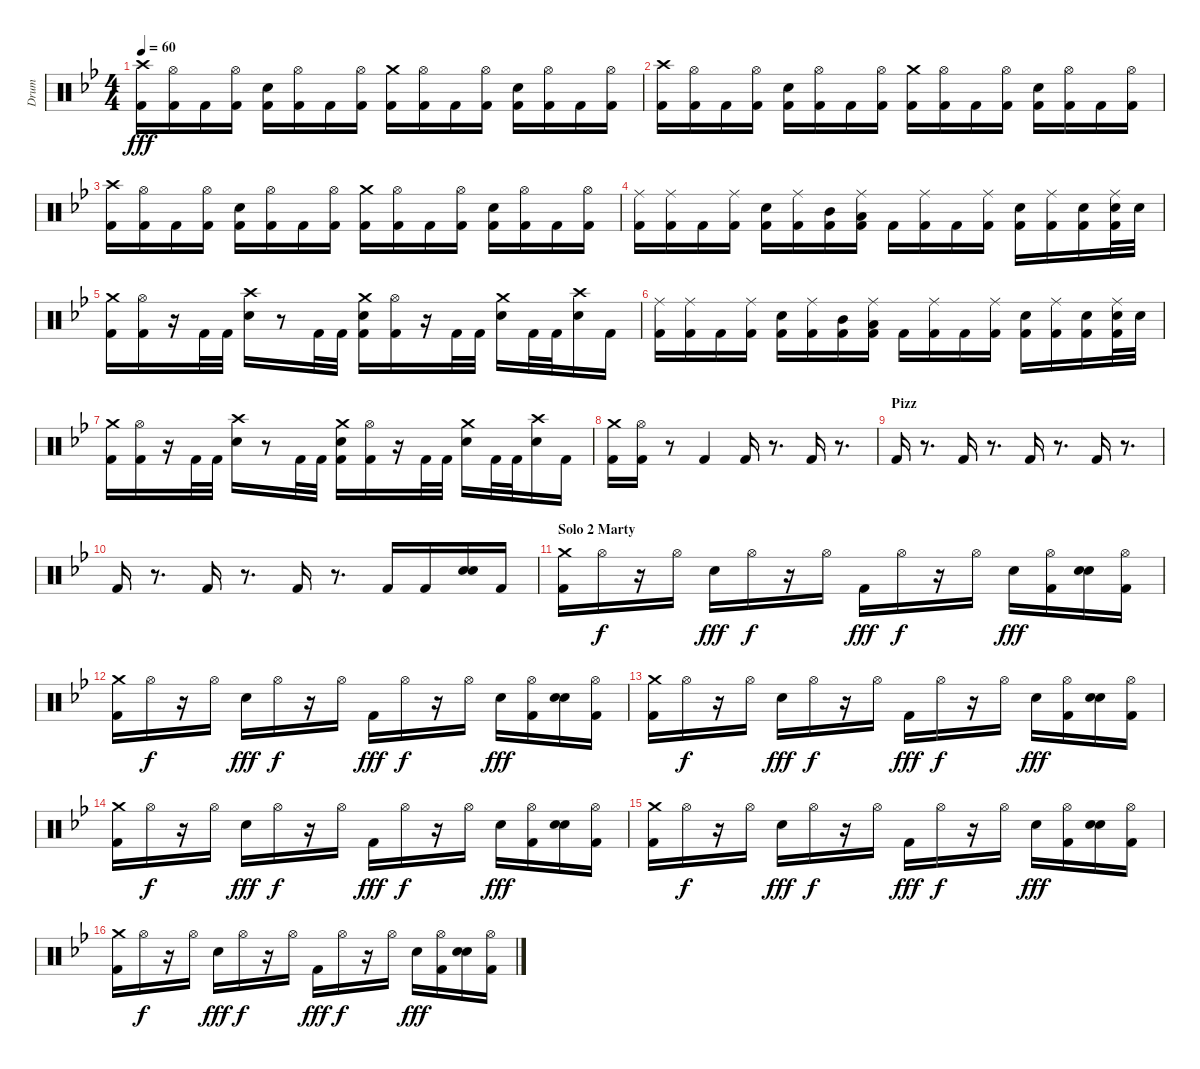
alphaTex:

\track ("Drum" "Drum") {instrument percussion}
\staff {score}
\articulation defaults
\ts (4 4)
\tempo 60
\clef neutral
\ks gminor
("Kick (hit) 2" "Crash high (hit)").16{dy fff} ("Kick (hit) 2" "Hi-Hat (open)").16 "Kick (hit) 2".16 ("Kick (hit) 2" "Hi-Hat (open)").16 ("Kick (hit) 2" "Electric Snare (hit)").16 ("Kick (hit) 2" "Hi-Hat (open)").16 "Kick (hit) 2".16 ("Kick (hit) 2" "Hi-Hat (open)").16 ("Kick (hit) 2" "Crash medium (hit)").16 ("Kick (hit) 2" "Hi-Hat (open)").16 "Kick (hit) 2".16 ("Kick (hit) 2" "Hi-Hat (open)").16 ("Electric Snare (hit)" "Kick (hit) 2").16 ("Kick (hit) 2" "Hi-Hat (open)").16 "Kick (hit) 2".16 ("Kick (hit) 2" "Hi-Hat (open)").16 |
("Kick (hit) 2" "Crash high (hit)").16 ("Kick (hit) 2" "Hi-Hat (open)").16 "Kick (hit) 2".16 ("Kick (hit) 2" "Hi-Hat (open)").16 ("Electric Snare (hit)" "Kick (hit) 2").16 ("Kick (hit) 2" "Hi-Hat (open)").16 "Kick (hit) 2".16 ("Kick (hit) 2" "Hi-Hat (open)").16 ("Kick (hit) 2" "Crash medium (hit)").16 ("Kick (hit) 2" "Hi-Hat (open)").16 "Kick (hit) 2".16 ("Kick (hit) 2" "Hi-Hat (open)").16 ("Kick (hit) 2" "Electric Snare (hit)").16 ("Kick (hit) 2" "Hi-Hat (open)").16 "Kick (hit) 2".16 ("Kick (hit) 2" "Hi-Hat (open)").16 |
("Kick (hit) 2" "Crash high (hit)").16 ("Kick (hit) 2" "Hi-Hat (open)").16 "Kick (hit) 2".16 ("Kick (hit) 2" "Hi-Hat (open)").16 ("Electric Snare (hit)" "Kick (hit) 2").16 ("Kick (hit) 2" "Hi-Hat (open)").16 "Kick (hit) 2".16 ("Kick (hit) 2" "Hi-Hat (open)").16 ("Kick (hit) 2" "Crash medium (hit)").16 ("Kick (hit) 2" "Hi-Hat (open)").16 "Kick (hit) 2".16 ("Kick (hit) 2" "Hi-Hat (open)").16 ("Electric Snare (hit)" "Kick (hit) 2").16 ("Kick (hit) 2" "Hi-Hat (open)").16 "Kick (hit) 2".16 ("Kick (hit) 2" "Hi-Hat (open)").16 |
("Kick (hit) 2" "Ride (middle)").16 ("Kick (hit) 2" "Ride (middle)").16 "Kick (hit) 2".16 ("Kick (hit) 2" "Ride (middle)").16 ("Kick (hit) 2" "Electric Snare (hit)").16 ("Kick (hit) 2" "Ride (middle)").16 ("Kick (hit) 2" "Mid Tom (hit)").16 ("Kick (hit) 2" "Ride (middle)" "Low Tom (hit)").16 "Kick (hit) 2".16 ("Kick (hit) 2" "Ride (middle)").16 "Kick (hit) 2".16 ("Kick (hit) 2" "Ride (middle)").16 ("Electric Snare (hit)" "Kick (hit) 2").16 ("Kick (hit) 2" "Ride (middle)").16 ("Electric Snare (hit)" "Kick (hit) 2").16 ("Kick (hit) 2" "Electric Snare (hit)" "Ride (middle)").32 "Electric Snare (hit)".32 |
("Kick (hit) 2" "Crash medium (hit)").16 ("Kick (hit) 2" "Hi-Hat (open)").16 r.16 "Kick (hit) 2".32 "Kick (hit) 2".32 ("Electric Snare (hit)" "Crash high (hit)").16 r.8 "Kick (hit) 2".32 "Kick (hit) 2".32 ("Kick (hit) 2" "Electric Snare (hit)" "Crash medium (hit)").16 ("Kick (hit) 2" "Hi-Hat (open)").16 r.16 "Kick (hit) 2".32 "Kick (hit) 2".32 ("Electric Snare (hit)" "Crash medium (hit)").16 "Kick (hit) 2".32 "Kick (hit) 2".32 ("Electric Snare (hit)" "Crash high (hit)").16 "Kick (hit) 2".16 |
("Kick (hit) 2" "Ride (middle)").16 ("Kick (hit) 2" "Ride (middle)").16 "Kick (hit) 2".16 ("Kick (hit) 2" "Ride (middle)").16 ("Kick (hit) 2" "Electric Snare (hit)").16 ("Kick (hit) 2" "Ride (middle)").16 ("Kick (hit) 2" "Mid Tom (hit)").16 ("Kick (hit) 2" "Ride (middle)" "Low Tom (hit)").16 "Kick (hit) 2".16 ("Kick (hit) 2" "Ride (middle)").16 "Kick (hit) 2".16 ("Kick (hit) 2" "Ride (middle)").16 ("Electric Snare (hit)" "Kick (hit) 2").16 ("Kick (hit) 2" "Ride (middle)").16 ("Kick (hit) 2" "Electric Snare (hit)").16 ("Kick (hit) 2" "Electric Snare (hit)" "Ride (middle)").32 "Electric Snare (hit)".32 |
("Kick (hit) 2" "Crash medium (hit)").16 ("Kick (hit) 2" "Hi-Hat (open)").16 r.16 "Kick (hit) 2".32 "Kick (hit) 2".32 ("Electric Snare (hit)" "Crash high (hit)").16 r.8 "Kick (hit) 2".32 "Kick (hit) 2".32 ("Kick (hit) 2" "Electric Snare (hit)" "Crash medium (hit)").16 ("Kick (hit) 2" "Hi-Hat (open)").16 r.16 "Kick (hit) 2".32 "Kick (hit) 2".32 ("Electric Snare (hit)" "Crash medium (hit)").16 "Kick (hit) 2".32 "Kick (hit) 2".32 ("Electric Snare (hit)" "Crash high (hit)").16 "Kick (hit) 2".16 |
("Kick (hit) 2" "Crash medium (hit)").16 ("Kick (hit) 2" "Hi-Hat (open)").16 r.8 "Kick (hit) 2".4 "Kick (hit) 2".16 r.8{d} "Kick (hit) 2".16 r.8{d} |
\section ("" "Pizz")
"Kick (hit) 2".16 r.8{d} "Kick (hit) 2".16 r.8{d} "Kick (hit) 2".16 r.8{d} "Kick (hit) 2".16 r.8{d} |
"Kick (hit) 2".16 r.8{d} "Kick (hit) 2".16 r.8{d} "Kick (hit) 2".16 r.8{d} "Kick (hit) 2".16 "Kick (hit) 2".16 ("Electric Snare (hit)" "Electric Snare (hit)").16 "Kick (hit) 2".16 |
\section ("" "Solo 2 Marty")
("Kick (hit) 2" "Crash medium (hit)").16 "Hi-Hat (open)".16{dy f} r.16 "Hi-Hat (open)".16 "Electric Snare (hit)".16{dy fff} "Hi-Hat (open)".16{dy f} r.16 "Hi-Hat (open)".16 "Kick (hit) 2".16{dy fff} "Hi-Hat (open)".16{dy f} r.16 "Hi-Hat (open)".16 "Electric Snare (hit)".16{dy fff} ("Kick (hit) 2" "Hi-Hat (open)").16 ("Snare (hit) 2" "Electric Snare (hit)").16 ("Kick (hit) 2" "Hi-Hat (open)").16 |
("Kick (hit) 2" "Crash medium (hit)").16 "Hi-Hat (open)".16{dy f} r.16 "Hi-Hat (open)".16 "Electric Snare (hit)".16{dy fff} "Hi-Hat (open)".16{dy f} r.16 "Hi-Hat (open)".16 "Kick (hit) 2".16{dy fff} "Hi-Hat (open)".16{dy f} r.16 "Hi-Hat (open)".16 "Electric Snare (hit)".16{dy fff} ("Kick (hit) 2" "Hi-Hat (open)").16 ("Snare (hit) 2" "Electric Snare (hit)").16 ("Kick (hit) 2" "Hi-Hat (open)").16 |
("Kick (hit) 2" "Crash medium (hit)").16 "Hi-Hat (open)".16{dy f} r.16 "Hi-Hat (open)".16 "Electric Snare (hit)".16{dy fff} "Hi-Hat (open)".16{dy f} r.16 "Hi-Hat (open)".16 "Kick (hit) 2".16{dy fff} "Hi-Hat (open)".16{dy f} r.16 "Hi-Hat (open)".16 "Electric Snare (hit)".16{dy fff} ("Kick (hit) 2" "Hi-Hat (open)").16 ("Snare (hit) 2" "Electric Snare (hit)").16 ("Kick (hit) 2" "Hi-Hat (open)").16 |
("Kick (hit) 2" "Crash medium (hit)").16 "Hi-Hat (open)".16{dy f} r.16 "Hi-Hat (open)".16 "Electric Snare (hit)".16{dy fff} "Hi-Hat (open)".16{dy f} r.16 "Hi-Hat (open)".16 "Kick (hit) 2".16{dy fff} "Hi-Hat (open)".16{dy f} r.16 "Hi-Hat (open)".16 "Electric Snare (hit)".16{dy fff} ("Kick (hit) 2" "Hi-Hat (open)").16 ("Snare (hit) 2" "Electric Snare (hit)").16 ("Kick (hit) 2" "Hi-Hat (open)").16 |
("Kick (hit) 2" "Crash medium (hit)").16 "Hi-Hat (open)".16{dy f} r.16 "Hi-Hat (open)".16 "Electric Snare (hit)".16{dy fff} "Hi-Hat (open)".16{dy f} r.16 "Hi-Hat (open)".16 "Kick (hit) 2".16{dy fff} "Hi-Hat (open)".16{dy f} r.16 "Hi-Hat (open)".16 "Electric Snare (hit)".16{dy fff} ("Kick (hit) 2" "Hi-Hat (open)").16 ("Snare (hit) 2" "Electric Snare (hit)").16 ("Kick (hit) 2" "Hi-Hat (open)").16 |
("Kick (hit) 2" "Crash medium (hit)").16 "Hi-Hat (open)".16{dy f} r.16 "Hi-Hat (open)".16 "Electric Snare (hit)".16{dy fff} "Hi-Hat (open)".16{dy f} r.16 "Hi-Hat (open)".16 "Kick (hit) 2".16{dy fff} "Hi-Hat (open)".16{dy f} r.16 "Hi-Hat (open)".16 "Electric Snare (hit)".16{dy fff} ("Kick (hit) 2" "Hi-Hat (open)").16 ("Snare (hit) 2" "Electric Snare (hit)").16 ("Kick (hit) 2" "Hi-Hat (open)").16
